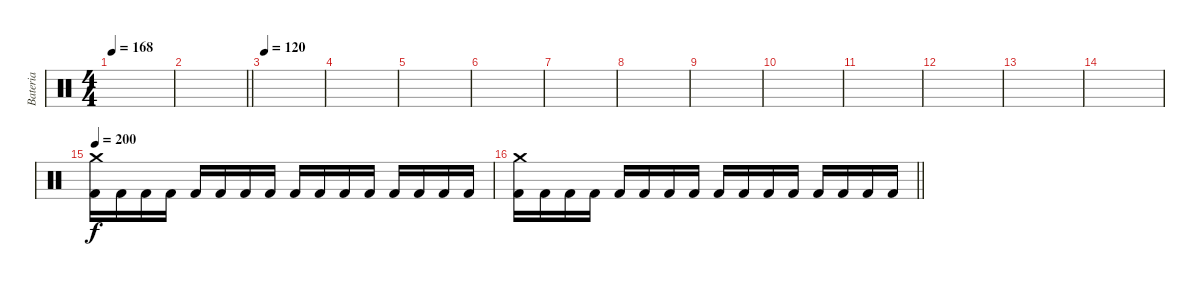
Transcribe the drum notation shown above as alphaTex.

\track ("Bateria" "Bateria") {instrument percussion}
\staff {score}
\articulation defaults
\ts (4 4)
\tempo 168
\clef neutral
\ks c
|
\barLineRight lightlight
|
\tempo 120
|
|
|
|
|
|
|
|
|
|
|
|
\tempo 200
("Crash medium (hit)" "Kick (hit) 2").16{volume 12 balance 5} "Kick (hit) 2".16 "Kick (hit) 2".16 "Kick (hit) 2".16 "Kick (hit) 2".16 "Kick (hit) 2".16 "Kick (hit) 2".16 "Kick (hit) 2".16 "Kick (hit) 2".16 "Kick (hit) 2".16 "Kick (hit) 2".16 "Kick (hit) 2".16 "Kick (hit) 2".16 "Kick (hit) 2".16 "Kick (hit) 2".16 "Kick (hit) 2".16 |
\barLineRight lightlight
("Crash medium (hit)" "Kick (hit) 2").16 "Kick (hit) 2".16 "Kick (hit) 2".16 "Kick (hit) 2".16 "Kick (hit) 2".16 "Kick (hit) 2".16 "Kick (hit) 2".16 "Kick (hit) 2".16 "Kick (hit) 2".16 "Kick (hit) 2".16 "Kick (hit) 2".16 "Kick (hit) 2".16 "Kick (hit) 2".16 "Kick (hit) 2".16 "Kick (hit) 2".16 "Kick (hit) 2".16
